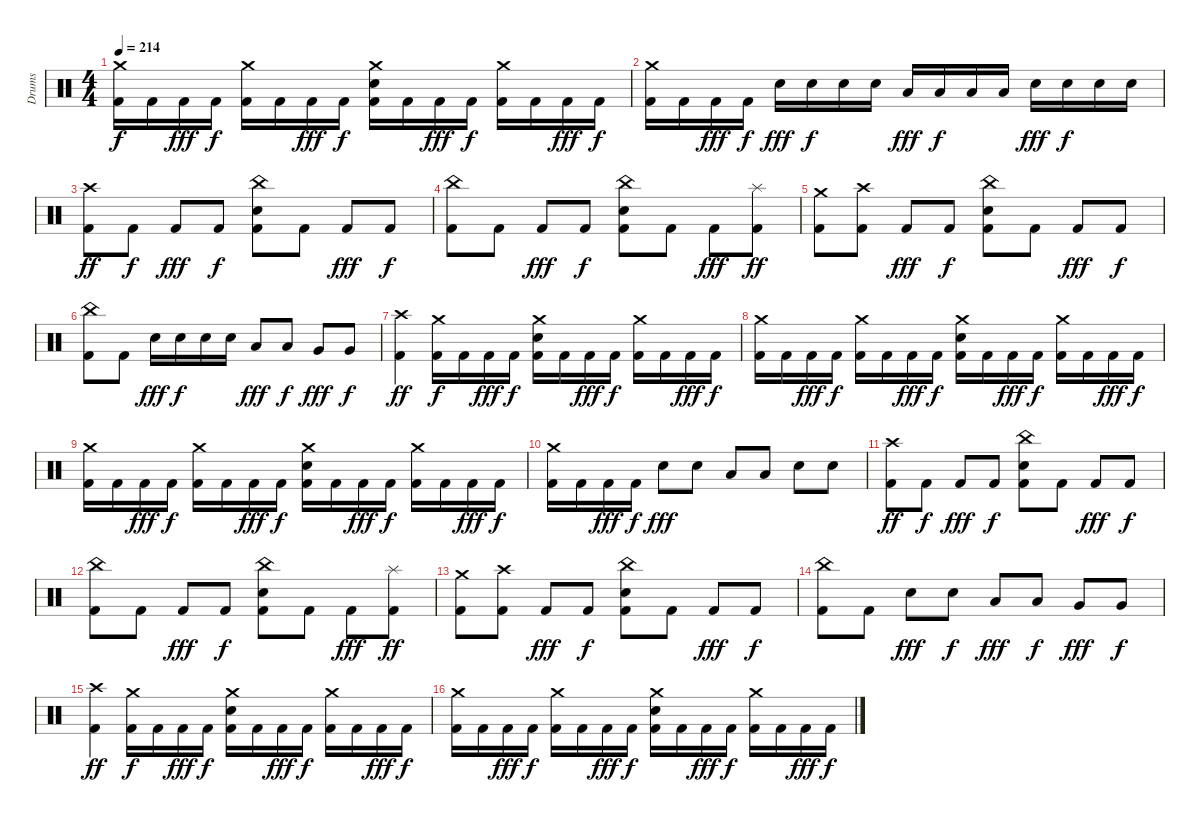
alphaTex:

\track ("Drums" "Drums") {instrument percussion}
\staff {score}
\articulation defaults
\ts (4 4)
\tempo 214
\clef neutral
\ks c
("Crash medium (hit)" "Kick (hit) 2").16{dy f} "Kick (hit) 2".16 "Kick (hit) 2".16{dy fff} "Kick (hit) 2".16{dy f} ("Crash medium (hit)" "Kick (hit) 2").16 "Kick (hit) 2".16 "Kick (hit) 2".16{dy fff} "Kick (hit) 2".16{dy f} ("Crash medium (hit)" "Snare (hit) 2" "Kick (hit) 2").16 "Kick (hit) 2".16 "Kick (hit) 2".16{dy fff} "Kick (hit) 2".16{dy f} ("Crash medium (hit)" "Kick (hit) 2").16 "Kick (hit) 2".16 "Kick (hit) 2".16{dy fff} "Kick (hit) 2".16{dy f} |
("Crash medium (hit)" "Kick (hit) 2").16 "Kick (hit) 2".16 "Kick (hit) 2".16{dy fff} "Kick (hit) 2".16{dy f} "Snare (hit) 2".16{dy fff} "Snare (hit) 2".16{dy f} "Snare (hit) 2".16 "Snare (hit) 2".16 "Low Tom (hit)".16{dy fff} "Low Tom (hit)".16{dy f} "Low Tom (hit)".16 "Low Tom (hit)".16 "Snare (hit) 2".16{dy fff} "Snare (hit) 2".16{dy f} "Snare (hit) 2".16 "Snare (hit) 2".16 |
("Crash high (hit)" "Kick (hit) 2").8{dy ff} "Kick (hit) 2".8{dy f} "Kick (hit) 2".8{dy fff} "Kick (hit) 2".8{dy f} ("China (hit)" "Snare (hit) 2" "Kick (hit) 2").8 "Kick (hit) 2".8 "Kick (hit) 2".8{dy fff} "Kick (hit) 2".8{dy f} |
("China (hit)" "Kick (hit) 2").8 "Kick (hit) 2".8 "Kick (hit) 2".8{dy fff} "Kick (hit) 2".8{dy f} ("China (hit)" "Snare (hit) 2" "Kick (hit) 2").8 "Kick (hit) 2".8 "Kick (hit) 2".8{dy fff} ("Splash (hit)" "Kick (hit) 2").8{dy ff} |
("Crash medium (hit)" "Kick (hit) 2").8 ("Crash high (hit)" "Kick (hit) 2").8 "Kick (hit) 2".8{dy fff} "Kick (hit) 2".8{dy f} ("China (hit)" "Snare (hit) 2" "Kick (hit) 2").8 "Kick (hit) 2".8 "Kick (hit) 2".8{dy fff} "Kick (hit) 2".8{dy f} |
("China (hit)" "Kick (hit) 2").8 "Kick (hit) 2".8 "Snare (hit) 2".16{dy fff} "Snare (hit) 2".16{dy f} "Snare (hit) 2".16 "Snare (hit) 2".16 "Low Tom (hit)".8{dy fff} "Low Tom (hit)".8{dy f} "Very Low Tom (hit)".8{dy fff} "Very Low Tom (hit)".8{dy f} |
("Crash high (hit)" "Kick (hit) 2").4{dy ff} ("Crash medium (hit)" "Kick (hit) 2").16{dy f} "Kick (hit) 2".16 "Kick (hit) 2".16{dy fff} "Kick (hit) 2".16{dy f} ("Crash medium (hit)" "Snare (hit) 2" "Kick (hit) 2").16 "Kick (hit) 2".16 "Kick (hit) 2".16{dy fff} "Kick (hit) 2".16{dy f} ("Crash medium (hit)" "Kick (hit) 2").16 "Kick (hit) 2".16 "Kick (hit) 2".16{dy fff} "Kick (hit) 2".16{dy f} |
("Crash medium (hit)" "Kick (hit) 2").16 "Kick (hit) 2".16 "Kick (hit) 2".16{dy fff} "Kick (hit) 2".16{dy f} ("Crash medium (hit)" "Kick (hit) 2").16 "Kick (hit) 2".16 "Kick (hit) 2".16{dy fff} "Kick (hit) 2".16{dy f} ("Crash medium (hit)" "Snare (hit) 2" "Kick (hit) 2").16 "Kick (hit) 2".16 "Kick (hit) 2".16{dy fff} "Kick (hit) 2".16{dy f} ("Crash medium (hit)" "Kick (hit) 2").16 "Kick (hit) 2".16 "Kick (hit) 2".16{dy fff} "Kick (hit) 2".16{dy f} |
("Crash medium (hit)" "Kick (hit) 2").16 "Kick (hit) 2".16 "Kick (hit) 2".16{dy fff} "Kick (hit) 2".16{dy f} ("Crash medium (hit)" "Kick (hit) 2").16 "Kick (hit) 2".16 "Kick (hit) 2".16{dy fff} "Kick (hit) 2".16{dy f} ("Crash medium (hit)" "Snare (hit) 2" "Kick (hit) 2").16 "Kick (hit) 2".16 "Kick (hit) 2".16{dy fff} "Kick (hit) 2".16{dy f} ("Crash medium (hit)" "Kick (hit) 2").16 "Kick (hit) 2".16 "Kick (hit) 2".16{dy fff} "Kick (hit) 2".16{dy f} |
("Crash medium (hit)" "Kick (hit) 2").16 "Kick (hit) 2".16 "Kick (hit) 2".16{dy fff} "Kick (hit) 2".16{dy f} "Snare (hit) 2".8{dy fff} "Snare (hit) 2".8 "Low Tom (hit)".8 "Low Tom (hit)".8 "Snare (hit) 2".8 "Snare (hit) 2".8 |
("Crash high (hit)" "Kick (hit) 2").8{dy ff} "Kick (hit) 2".8{dy f} "Kick (hit) 2".8{dy fff} "Kick (hit) 2".8{dy f} ("China (hit)" "Snare (hit) 2" "Kick (hit) 2").8 "Kick (hit) 2".8 "Kick (hit) 2".8{dy fff} "Kick (hit) 2".8{dy f} |
("China (hit)" "Kick (hit) 2").8 "Kick (hit) 2".8 "Kick (hit) 2".8{dy fff} "Kick (hit) 2".8{dy f} ("China (hit)" "Snare (hit) 2" "Kick (hit) 2").8 "Kick (hit) 2".8 "Kick (hit) 2".8{dy fff} ("Splash (hit)" "Kick (hit) 2").8{dy ff} |
("Crash medium (hit)" "Kick (hit) 2").8 ("Crash high (hit)" "Kick (hit) 2").8 "Kick (hit) 2".8{dy fff} "Kick (hit) 2".8{dy f} ("China (hit)" "Snare (hit) 2" "Kick (hit) 2").8 "Kick (hit) 2".8 "Kick (hit) 2".8{dy fff} "Kick (hit) 2".8{dy f} |
("China (hit)" "Kick (hit) 2").8 "Kick (hit) 2".8 "Snare (hit) 2".8{dy fff} "Snare (hit) 2".8{dy f} "Low Tom (hit)".8{dy fff} "Low Tom (hit)".8{dy f} "Very Low Tom (hit)".8{dy fff} "Very Low Tom (hit)".8{dy f} |
("Crash high (hit)" "Kick (hit) 2").4{dy ff} ("Crash medium (hit)" "Kick (hit) 2").16{dy f} "Kick (hit) 2".16 "Kick (hit) 2".16{dy fff} "Kick (hit) 2".16{dy f} ("Crash medium (hit)" "Snare (hit) 2" "Kick (hit) 2").16 "Kick (hit) 2".16 "Kick (hit) 2".16{dy fff} "Kick (hit) 2".16{dy f} ("Crash medium (hit)" "Kick (hit) 2").16 "Kick (hit) 2".16 "Kick (hit) 2".16{dy fff} "Kick (hit) 2".16{dy f} |
("Crash medium (hit)" "Kick (hit) 2").16 "Kick (hit) 2".16 "Kick (hit) 2".16{dy fff} "Kick (hit) 2".16{dy f} ("Crash medium (hit)" "Kick (hit) 2").16 "Kick (hit) 2".16 "Kick (hit) 2".16{dy fff} "Kick (hit) 2".16{dy f} ("Crash medium (hit)" "Snare (hit) 2" "Kick (hit) 2").16 "Kick (hit) 2".16 "Kick (hit) 2".16{dy fff} "Kick (hit) 2".16{dy f} ("Crash medium (hit)" "Kick (hit) 2").16 "Kick (hit) 2".16 "Kick (hit) 2".16{dy fff} "Kick (hit) 2".16{dy f}
